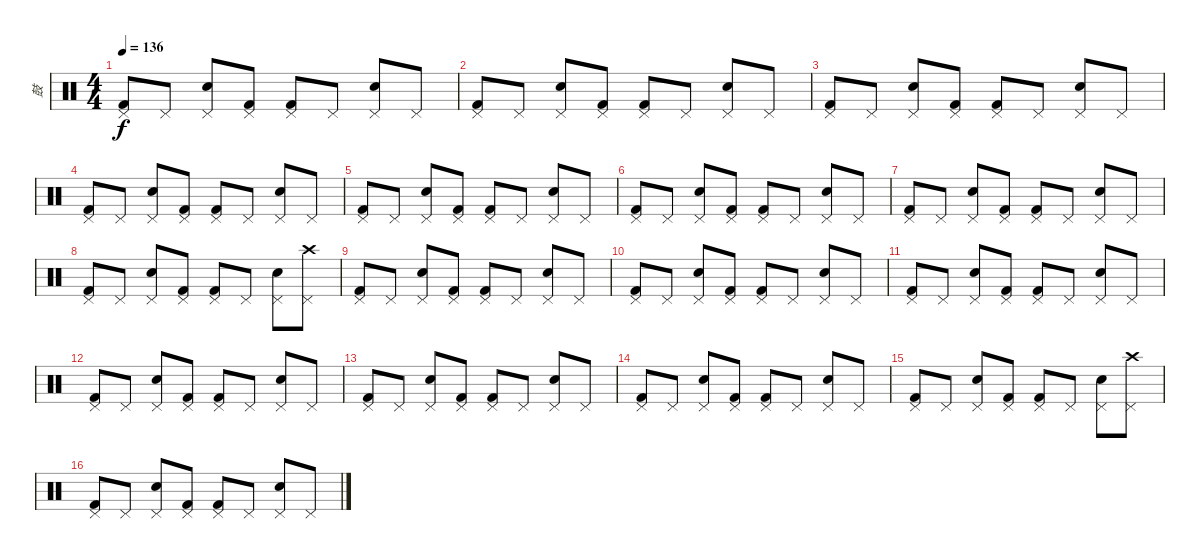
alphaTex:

\track ("鼓" "鼓") {instrument percussion}
\staff {score}
\articulation defaults
\ts (4 4)
\tempo 136
\clef neutral
\ks c
("Pedal Hi-Hat (hit)" "Kick (hit) 2").8{dy f} "Pedal Hi-Hat (hit)".8 ("Pedal Hi-Hat (hit)" "Electric Snare (hit)").8 ("Pedal Hi-Hat (hit)" "Kick (hit) 2").8 ("Pedal Hi-Hat (hit)" "Kick (hit) 2").8 "Pedal Hi-Hat (hit)".8 ("Pedal Hi-Hat (hit)" "Electric Snare (hit)").8 "Pedal Hi-Hat (hit)".8 |
("Pedal Hi-Hat (hit)" "Kick (hit) 2").8 "Pedal Hi-Hat (hit)".8 ("Pedal Hi-Hat (hit)" "Electric Snare (hit)").8 ("Pedal Hi-Hat (hit)" "Kick (hit) 2").8 ("Pedal Hi-Hat (hit)" "Kick (hit) 2").8 "Pedal Hi-Hat (hit)".8 ("Pedal Hi-Hat (hit)" "Electric Snare (hit)").8 "Pedal Hi-Hat (hit)".8 |
("Pedal Hi-Hat (hit)" "Kick (hit) 2").8 "Pedal Hi-Hat (hit)".8 ("Pedal Hi-Hat (hit)" "Electric Snare (hit)").8 ("Pedal Hi-Hat (hit)" "Kick (hit) 2").8 ("Pedal Hi-Hat (hit)" "Kick (hit) 2").8 "Pedal Hi-Hat (hit)".8 ("Pedal Hi-Hat (hit)" "Electric Snare (hit)").8 "Pedal Hi-Hat (hit)".8 |
("Pedal Hi-Hat (hit)" "Kick (hit) 2").8 "Pedal Hi-Hat (hit)".8 ("Pedal Hi-Hat (hit)" "Electric Snare (hit)").8 ("Pedal Hi-Hat (hit)" "Kick (hit) 2").8 ("Pedal Hi-Hat (hit)" "Kick (hit) 2").8 "Pedal Hi-Hat (hit)".8 ("Pedal Hi-Hat (hit)" "Electric Snare (hit)").8 "Pedal Hi-Hat (hit)".8 |
("Pedal Hi-Hat (hit)" "Kick (hit) 2").8 "Pedal Hi-Hat (hit)".8 ("Pedal Hi-Hat (hit)" "Electric Snare (hit)").8 ("Pedal Hi-Hat (hit)" "Kick (hit) 2").8 ("Pedal Hi-Hat (hit)" "Kick (hit) 2").8 "Pedal Hi-Hat (hit)".8 ("Pedal Hi-Hat (hit)" "Electric Snare (hit)").8 "Pedal Hi-Hat (hit)".8 |
("Pedal Hi-Hat (hit)" "Kick (hit) 2").8 "Pedal Hi-Hat (hit)".8 ("Pedal Hi-Hat (hit)" "Electric Snare (hit)").8 ("Pedal Hi-Hat (hit)" "Kick (hit) 2").8 ("Pedal Hi-Hat (hit)" "Kick (hit) 2").8 "Pedal Hi-Hat (hit)".8 ("Pedal Hi-Hat (hit)" "Electric Snare (hit)").8 "Pedal Hi-Hat (hit)".8 |
("Pedal Hi-Hat (hit)" "Kick (hit) 2").8 "Pedal Hi-Hat (hit)".8 ("Pedal Hi-Hat (hit)" "Electric Snare (hit)").8 ("Pedal Hi-Hat (hit)" "Kick (hit) 2").8 ("Pedal Hi-Hat (hit)" "Kick (hit) 2").8 "Pedal Hi-Hat (hit)".8 ("Pedal Hi-Hat (hit)" "Electric Snare (hit)").8 "Pedal Hi-Hat (hit)".8 |
("Pedal Hi-Hat (hit)" "Kick (hit) 2").8 "Pedal Hi-Hat (hit)".8 ("Pedal Hi-Hat (hit)" "Electric Snare (hit)").8 ("Pedal Hi-Hat (hit)" "Kick (hit) 2").8 ("Pedal Hi-Hat (hit)" "Kick (hit) 2").8 "Pedal Hi-Hat (hit)".8 ("Pedal Hi-Hat (hit)" "Electric Snare (hit)").8 ("Pedal Hi-Hat (hit)" "Crash high (hit)").8 |
("Pedal Hi-Hat (hit)" "Kick (hit) 2").8 "Pedal Hi-Hat (hit)".8 ("Pedal Hi-Hat (hit)" "Electric Snare (hit)").8 ("Pedal Hi-Hat (hit)" "Kick (hit) 2").8 ("Pedal Hi-Hat (hit)" "Kick (hit) 2").8 "Pedal Hi-Hat (hit)".8 ("Pedal Hi-Hat (hit)" "Electric Snare (hit)").8 "Pedal Hi-Hat (hit)".8 |
("Pedal Hi-Hat (hit)" "Kick (hit) 2").8 "Pedal Hi-Hat (hit)".8 ("Pedal Hi-Hat (hit)" "Electric Snare (hit)").8 ("Pedal Hi-Hat (hit)" "Kick (hit) 2").8 ("Pedal Hi-Hat (hit)" "Kick (hit) 2").8 "Pedal Hi-Hat (hit)".8 ("Pedal Hi-Hat (hit)" "Electric Snare (hit)").8 "Pedal Hi-Hat (hit)".8 |
("Pedal Hi-Hat (hit)" "Kick (hit) 2").8 "Pedal Hi-Hat (hit)".8 ("Pedal Hi-Hat (hit)" "Electric Snare (hit)").8 ("Pedal Hi-Hat (hit)" "Kick (hit) 2").8 ("Pedal Hi-Hat (hit)" "Kick (hit) 2").8 "Pedal Hi-Hat (hit)".8 ("Pedal Hi-Hat (hit)" "Electric Snare (hit)").8 "Pedal Hi-Hat (hit)".8 |
("Pedal Hi-Hat (hit)" "Kick (hit) 2").8 "Pedal Hi-Hat (hit)".8 ("Pedal Hi-Hat (hit)" "Electric Snare (hit)").8 ("Pedal Hi-Hat (hit)" "Kick (hit) 2").8 ("Pedal Hi-Hat (hit)" "Kick (hit) 2").8 "Pedal Hi-Hat (hit)".8 ("Pedal Hi-Hat (hit)" "Electric Snare (hit)").8 "Pedal Hi-Hat (hit)".8 |
("Pedal Hi-Hat (hit)" "Kick (hit) 2").8 "Pedal Hi-Hat (hit)".8 ("Pedal Hi-Hat (hit)" "Electric Snare (hit)").8 ("Pedal Hi-Hat (hit)" "Kick (hit) 2").8 ("Pedal Hi-Hat (hit)" "Kick (hit) 2").8 "Pedal Hi-Hat (hit)".8 ("Pedal Hi-Hat (hit)" "Electric Snare (hit)").8 "Pedal Hi-Hat (hit)".8 |
("Pedal Hi-Hat (hit)" "Kick (hit) 2").8 "Pedal Hi-Hat (hit)".8 ("Pedal Hi-Hat (hit)" "Electric Snare (hit)").8 ("Pedal Hi-Hat (hit)" "Kick (hit) 2").8 ("Pedal Hi-Hat (hit)" "Kick (hit) 2").8 "Pedal Hi-Hat (hit)".8 ("Pedal Hi-Hat (hit)" "Electric Snare (hit)").8 "Pedal Hi-Hat (hit)".8 |
("Pedal Hi-Hat (hit)" "Kick (hit) 2").8 "Pedal Hi-Hat (hit)".8 ("Pedal Hi-Hat (hit)" "Electric Snare (hit)").8 ("Pedal Hi-Hat (hit)" "Kick (hit) 2").8 ("Pedal Hi-Hat (hit)" "Kick (hit) 2").8 "Pedal Hi-Hat (hit)".8 ("Pedal Hi-Hat (hit)" "Electric Snare (hit)").8 ("Pedal Hi-Hat (hit)" "Crash high (hit)").8 |
("Pedal Hi-Hat (hit)" "Kick (hit) 2").8 "Pedal Hi-Hat (hit)".8 ("Pedal Hi-Hat (hit)" "Electric Snare (hit)").8 ("Pedal Hi-Hat (hit)" "Kick (hit) 2").8 ("Pedal Hi-Hat (hit)" "Kick (hit) 2").8 "Pedal Hi-Hat (hit)".8 ("Pedal Hi-Hat (hit)" "Electric Snare (hit)").8 "Pedal Hi-Hat (hit)".8
